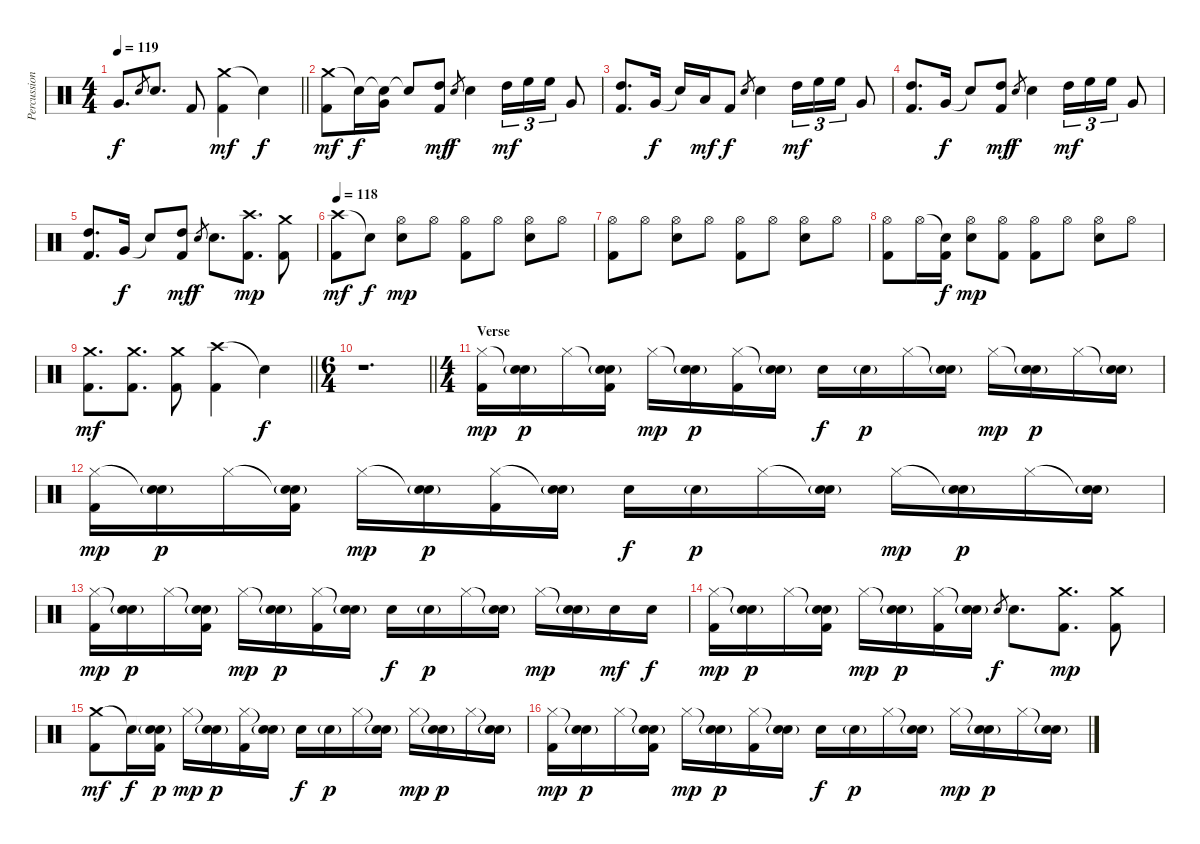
\track ("Percussions" "Percussion") {instrument percussion}
\staff {score}
\articulation defaults
\ts (4 4)
\tempo 119
\clef neutral
\barLineRight lightlight
\ks c "Very Low Tom (hit)".8{d dy f} "Electric Snare (hit)".8{gr} "Electric Snare (hit)".8{d} "Kick (hit) 2".8
("Crash medium (hit)" "Kick (hit) 2").4{dy mf} "Snare (hit)"{t}.4{dy f} |
("Crash medium (hit)" "Kick (hit) 2").8{dy mf} "Snare (hit)"{t}.16{dy f} ("Snare (hit)"{t} "Very Low Tom (hit)").16 "Snare (hit)"{t}.8 ("High Tom (hit)" "Kick (hit) 2").8{dy mf} "Electric Snare (hit)".8{gr dy f} "Electric Snare (hit)".4 "High Tom (hit)".16{tu (3 2) dy mf} "High Floor Tom (hit)".16{tu (3 2)} "High Floor Tom (hit)".16{tu (3 2)} "Very Low Tom (hit)".8 |
("High Tom (hit)" "Kick (hit) 2").8{d} "Very Low Tom (hit)".16{dy f} "Snare (hit)"{t}.16 "Low Floor Tom (hit)".16{dy mf} "Kick (hit) 2".8{dy f} "Electric Snare (hit)".8{gr} "Electric Snare (hit)".4 "High Tom (hit)".16{tu (3 2) dy mf} "High Floor Tom (hit)".16{tu (3 2)} "High Floor Tom (hit)".16{tu (3 2)} "Very Low Tom (hit)".8 |
("High Tom (hit)" "Kick (hit) 2").8{d} "Very Low Tom (hit)".16{dy f} "Snare (hit)"{t}.8 ("High Tom (hit)" "Kick (hit) 2").8{dy mf} "Electric Snare (hit)".8{gr dy f} "Electric Snare (hit)".4 "High Tom (hit)".16{tu (3 2) dy mf} "High Floor Tom (hit)".16{tu (3 2)} "High Floor Tom (hit)".16{tu (3 2)} "Very Low Tom (hit)".8 |
("High Tom (hit)" "Kick (hit) 2").8{d} "Very Low Tom (hit)".16{dy f} "Snare (hit)"{t}.8 ("High Tom (hit)" "Kick (hit) 2").8{dy mf} "Electric Snare (hit)".8{gr dy f} "Electric Snare (hit)".8{d} ("Crash high (hit)" "Kick (hit) 2").8{d dy mp} ("Crash medium (hit)" "Kick (hit) 2").8 |
\tempo 118
("Crash high (hit)" "Kick (hit) 2").8{dy mf} "Snare (hit)"{t}.8{dy f} ("Hi-Hat (open)" "Electric Snare (hit)").8{dy mp} "Hi-Hat (open)".8 ("Hi-Hat (open)" "Kick (hit) 2").8 "Hi-Hat (open)".8 ("Hi-Hat (open)" "Electric Snare (hit)").8 "Hi-Hat (open)".8 |
("Hi-Hat (open)" "Kick (hit) 2").8 "Hi-Hat (open)".8 ("Hi-Hat (open)" "Electric Snare (hit)").8 "Hi-Hat (open)".8 ("Hi-Hat (open)" "Kick (hit) 2").8 "Hi-Hat (open)".8 ("Hi-Hat (open)" "Electric Snare (hit)").8 "Hi-Hat (open)".8 |
("Hi-Hat (open)" "Kick (hit) 2").8 "Hi-Hat (open)".16 ("Snare (hit)"{t} "Kick (hit) 2").16{dy f} ("Hi-Hat (open)" "Electric Snare (hit)").8{dy mp} ("Hi-Hat (open)" "Kick (hit) 2").8 ("Hi-Hat (open)" "Kick (hit) 2").8 "Hi-Hat (open)".8 ("Hi-Hat (open)" "Electric Snare (hit)").8 "Hi-Hat (open)".8 |
\barLineRight lightlight
("Crash medium (hit)" "Kick (hit) 2").8{d dy mf} ("Crash medium (hit)" "Kick (hit) 2").8{d} ("Crash medium (hit)" "Kick (hit) 2").8 ("Crash high (hit)" "Kick (hit) 2").4 "Snare (hit)"{t}.4{dy f} |
\ts (6 4)
\barLineRight lightlight
r.1{d} |
\ts (4 4)
\section ("" "Verse")
("Hi-Hat (closed)" "Kick (hit) 2").16{dy mp} ("Snare (hit)"{t} "Electric Snare (hit)"{g}).16{dy p} "Hi-Hat (closed)".16 ("Snare (hit)"{t} "Electric Snare (hit)"{g} "Kick (hit) 2").16 "Hi-Hat (closed)".16{dy mp} ("Snare (hit)"{t} "Electric Snare (hit)"{g}).16{dy p} ("Hi-Hat (closed)" "Kick (hit) 2").16 ("Snare (hit)"{t} "Electric Snare (hit)"{g}).16 "Electric Snare (hit)".16{dy f} "Electric Snare (hit)"{g}.16{dy p} "Hi-Hat (closed)".16 ("Snare (hit)"{t} "Electric Snare (hit)"{g}).16 "Hi-Hat (closed)".16{dy mp} ("Snare (hit)"{t} "Electric Snare (hit)"{g}).16{dy p} "Hi-Hat (closed)".16 ("Snare (hit)"{t} "Electric Snare (hit)"{g}).16 |
("Hi-Hat (closed)" "Kick (hit) 2").16{dy mp} ("Snare (hit)"{t} "Electric Snare (hit)"{g}).16{dy p} "Hi-Hat (closed)".16 ("Snare (hit)"{t} "Electric Snare (hit)"{g} "Kick (hit) 2").16 "Hi-Hat (closed)".16{dy mp} ("Snare (hit)"{t} "Electric Snare (hit)"{g}).16{dy p} ("Hi-Hat (closed)" "Kick (hit) 2").16 ("Snare (hit)"{t} "Electric Snare (hit)"{g}).16 "Electric Snare (hit)".16{dy f} "Electric Snare (hit)"{g}.16{dy p} "Hi-Hat (closed)".16 ("Snare (hit)"{t} "Electric Snare (hit)"{g}).16 "Hi-Hat (closed)".16{dy mp} ("Snare (hit)"{t} "Electric Snare (hit)"{g}).16{dy p} "Hi-Hat (closed)".16 ("Snare (hit)"{t} "Electric Snare (hit)"{g}).16 |
("Hi-Hat (closed)" "Kick (hit) 2").16{dy mp} ("Snare (hit)"{t} "Electric Snare (hit)"{g}).16{dy p} "Hi-Hat (closed)".16 ("Snare (hit)"{t} "Electric Snare (hit)"{g} "Kick (hit) 2").16 "Hi-Hat (closed)".16{dy mp} ("Snare (hit)"{t} "Electric Snare (hit)"{g}).16{dy p} ("Hi-Hat (closed)" "Kick (hit) 2").16 ("Snare (hit)"{t} "Electric Snare (hit)"{g}).16 "Electric Snare (hit)".16{dy f} "Electric Snare (hit)"{g}.16{dy p} "Hi-Hat (closed)".16 ("Snare (hit)"{t} "Electric Snare (hit)"{g}).16 "Hi-Hat (closed)".16{dy mp} ("Snare (hit)"{t} "Electric Snare (hit)"{g}).16 "Electric Snare (hit)".16{dy mf} "Electric Snare (hit)".16{dy f} |
("Hi-Hat (closed)" "Kick (hit) 2").16{dy mp} ("Snare (hit)"{t} "Electric Snare (hit)"{g}).16{dy p} "Hi-Hat (closed)".16 ("Snare (hit)"{t} "Electric Snare (hit)"{g} "Kick (hit) 2").16 "Hi-Hat (closed)".16{dy mp} ("Snare (hit)"{t} "Electric Snare (hit)"{g}).16{dy p} ("Hi-Hat (closed)" "Kick (hit) 2").16 ("Snare (hit)"{t} "Electric Snare (hit)"{g}).16 "Electric Snare (hit)".8{gr dy f} "Electric Snare (hit)".8{d} ("Crash medium (hit)" "Kick (hit) 2").8{d dy mp} ("Crash medium (hit)" "Kick (hit) 2").8 |
("Crash medium (hit)" "Kick (hit) 2").8{dy mf} "Snare (hit)"{t}.16{dy f} ("Snare (hit)"{t} "Electric Snare (hit)"{g} "Kick (hit) 2").16{dy p} "Hi-Hat (closed)".16{dy mp} ("Snare (hit)"{t} "Electric Snare (hit)"{g}).16{dy p} ("Hi-Hat (closed)" "Kick (hit) 2").16 ("Snare (hit)"{t} "Electric Snare (hit)"{g}).16 "Electric Snare (hit)".16{dy f} "Electric Snare (hit)"{g}.16{dy p} "Hi-Hat (closed)".16 ("Snare (hit)"{t} "Electric Snare (hit)"{g}).16 "Hi-Hat (closed)".16{dy mp} ("Snare (hit)"{t} "Electric Snare (hit)"{g}).16{dy p} "Hi-Hat (closed)".16 ("Snare (hit)"{t} "Electric Snare (hit)"{g}).16 |
("Hi-Hat (closed)" "Kick (hit) 2").16{dy mp} ("Snare (hit)"{t} "Electric Snare (hit)"{g}).16{dy p} "Hi-Hat (closed)".16 ("Snare (hit)"{t} "Electric Snare (hit)"{g} "Kick (hit) 2").16 "Hi-Hat (closed)".16{dy mp} ("Snare (hit)"{t} "Electric Snare (hit)"{g}).16{dy p} ("Hi-Hat (closed)" "Kick (hit) 2").16 ("Snare (hit)"{t} "Electric Snare (hit)"{g}).16 "Electric Snare (hit)".16{dy f} "Electric Snare (hit)"{g}.16{dy p} "Hi-Hat (closed)".16 ("Snare (hit)"{t} "Electric Snare (hit)"{g}).16 "Hi-Hat (closed)".16{dy mp} ("Snare (hit)"{t} "Electric Snare (hit)"{g}).16{dy p} "Hi-Hat (closed)".16 ("Snare (hit)"{t} "Electric Snare (hit)"{g}).16
